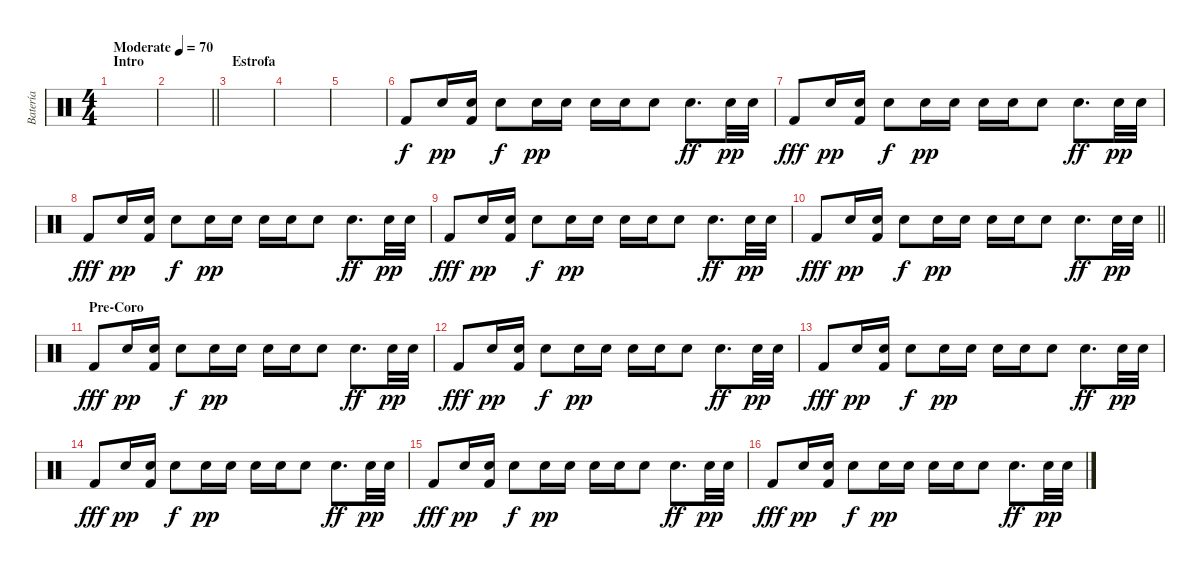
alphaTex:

\track ("Batería" "Batería") {instrument percussion}
\staff {score}
\articulation defaults
\ts (4 4)
\section ("" "Intro")
\tempo (70 "Moderate")
\clef neutral
\ks c
|
\barLineRight lightlight
|
\section ("" "Estrofa")
|
|
|
"Kick (hit) 2".8 "Snare (hit) 2".16{dy pp} ("Kick (hit) 2" "Snare (hit) 2").16 "Snare (hit) 2".8{dy f} "Snare (hit) 2".16{dy pp} "Snare (hit) 2".16 "Snare (hit) 2".16 "Snare (hit) 2".16 "Snare (hit) 2".8 "Snare (hit) 2".8{d dy ff} "Snare (hit) 2".32{dy pp} "Snare (hit) 2".32 |
"Kick (hit) 2".8{dy fff} "Snare (hit) 2".16{dy pp} ("Kick (hit) 2" "Snare (hit) 2").16 "Snare (hit) 2".8{dy f} "Snare (hit) 2".16{dy pp} "Snare (hit) 2".16 "Snare (hit) 2".16 "Snare (hit) 2".16 "Snare (hit) 2".8 "Snare (hit) 2".8{d dy ff} "Snare (hit) 2".32{dy pp} "Snare (hit) 2".32 |
"Kick (hit) 2".8{dy fff} "Snare (hit) 2".16{dy pp} ("Kick (hit) 2" "Snare (hit) 2").16 "Snare (hit) 2".8{dy f} "Snare (hit) 2".16{dy pp} "Snare (hit) 2".16 "Snare (hit) 2".16 "Snare (hit) 2".16 "Snare (hit) 2".8 "Snare (hit) 2".8{d dy ff} "Snare (hit) 2".32{dy pp} "Snare (hit) 2".32 |
"Kick (hit) 2".8{dy fff} "Snare (hit) 2".16{dy pp} ("Kick (hit) 2" "Snare (hit) 2").16 "Snare (hit) 2".8{dy f} "Snare (hit) 2".16{dy pp} "Snare (hit) 2".16 "Snare (hit) 2".16 "Snare (hit) 2".16 "Snare (hit) 2".8 "Snare (hit) 2".8{d dy ff} "Snare (hit) 2".32{dy pp} "Snare (hit) 2".32 |
\barLineRight lightlight "Kick (hit) 2".8{dy fff} "Snare (hit) 2".16{dy pp}
("Kick (hit) 2" "Snare (hit) 2").16 "Snare (hit) 2".8{dy f} "Snare (hit) 2".16{dy pp} "Snare (hit) 2".16 "Snare (hit) 2".16 "Snare (hit) 2".16 "Snare (hit) 2".8 "Snare (hit) 2".8{d dy ff} "Snare (hit) 2".32{dy pp} "Snare (hit) 2".32 |
\section ("" "Pre-Coro")
"Kick (hit) 2".8{dy fff} "Snare (hit) 2".16{dy pp} ("Kick (hit) 2" "Snare (hit) 2").16 "Snare (hit) 2".8{dy f} "Snare (hit) 2".16{dy pp} "Snare (hit) 2".16 "Snare (hit) 2".16 "Snare (hit) 2".16 "Snare (hit) 2".8 "Snare (hit) 2".8{d dy ff} "Snare (hit) 2".32{dy pp} "Snare (hit) 2".32 |
"Kick (hit) 2".8{dy fff} "Snare (hit) 2".16{dy pp} ("Kick (hit) 2" "Snare (hit) 2").16 "Snare (hit) 2".8{dy f} "Snare (hit) 2".16{dy pp} "Snare (hit) 2".16 "Snare (hit) 2".16 "Snare (hit) 2".16 "Snare (hit) 2".8 "Snare (hit) 2".8{d dy ff} "Snare (hit) 2".32{dy pp} "Snare (hit) 2".32 |
"Kick (hit) 2".8{dy fff} "Snare (hit) 2".16{dy pp} ("Kick (hit) 2" "Snare (hit) 2").16 "Snare (hit) 2".8{dy f} "Snare (hit) 2".16{dy pp} "Snare (hit) 2".16 "Snare (hit) 2".16 "Snare (hit) 2".16 "Snare (hit) 2".8 "Snare (hit) 2".8{d dy ff} "Snare (hit) 2".32{dy pp} "Snare (hit) 2".32 |
"Kick (hit) 2".8{dy fff} "Snare (hit) 2".16{dy pp} ("Kick (hit) 2" "Snare (hit) 2").16 "Snare (hit) 2".8{dy f} "Snare (hit) 2".16{dy pp} "Snare (hit) 2".16 "Snare (hit) 2".16 "Snare (hit) 2".16 "Snare (hit) 2".8 "Snare (hit) 2".8{d dy ff} "Snare (hit) 2".32{dy pp} "Snare (hit) 2".32 |
"Kick (hit) 2".8{dy fff} "Snare (hit) 2".16{dy pp} ("Kick (hit) 2" "Snare (hit) 2").16 "Snare (hit) 2".8{dy f} "Snare (hit) 2".16{dy pp} "Snare (hit) 2".16 "Snare (hit) 2".16 "Snare (hit) 2".16 "Snare (hit) 2".8 "Snare (hit) 2".8{d dy ff} "Snare (hit) 2".32{dy pp} "Snare (hit) 2".32 |
"Kick (hit) 2".8{dy fff} "Snare (hit) 2".16{dy pp} ("Kick (hit) 2" "Snare (hit) 2").16 "Snare (hit) 2".8{dy f} "Snare (hit) 2".16{dy pp} "Snare (hit) 2".16 "Snare (hit) 2".16 "Snare (hit) 2".16 "Snare (hit) 2".8 "Snare (hit) 2".8{d dy ff} "Snare (hit) 2".32{dy pp} "Snare (hit) 2".32
